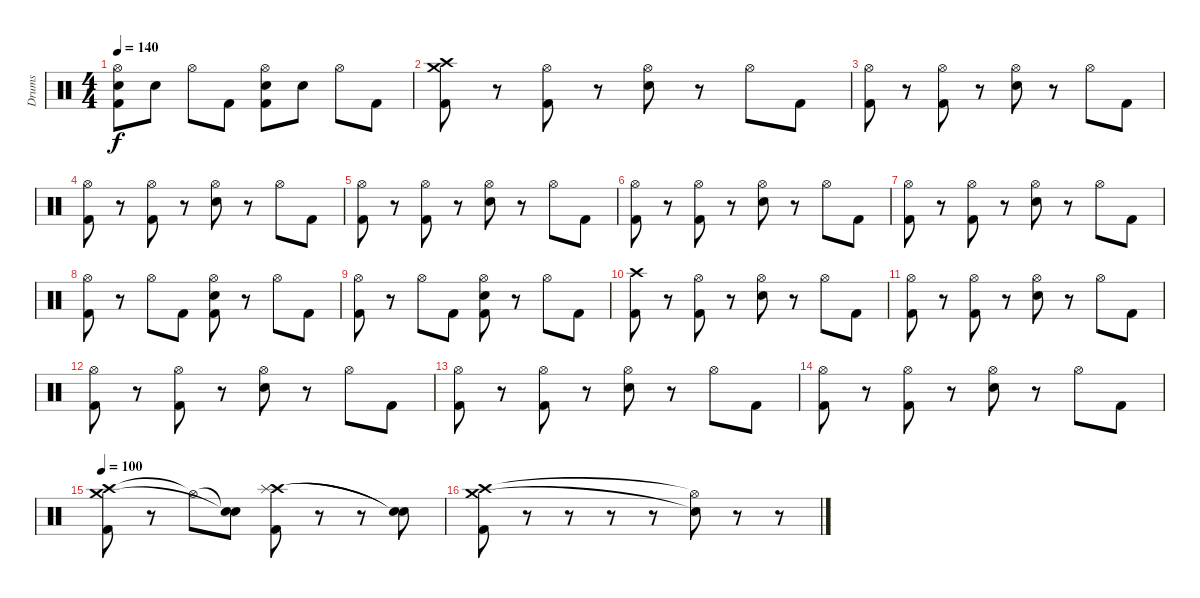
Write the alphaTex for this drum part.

\track ("Drums" "Drums") {instrument percussion}
\staff {score}
\articulation defaults
\ts (4 4)
\tempo 140
\clef neutral
\ks c
("Hi-Hat (open)" "Snare (hit) 2" "Kick (hit) 2").8{dy f} "Snare (hit) 2".8 "Hi-Hat (open)".8 "Kick (hit) 2".8 ("Hi-Hat (open)" "Snare (hit) 2" "Kick (hit) 2").8 "Snare (hit) 2".8 "Hi-Hat (open)".8 "Kick (hit) 2".8 |
("Crash high (hit)" "Crash medium (hit)" "Kick (hit) 2").8 r.8 ("Hi-Hat (open)" "Kick (hit) 2").8 r.8 ("Hi-Hat (open)" "Snare (hit) 2").8 r.8 "Hi-Hat (open)".8 "Kick (hit) 2".8 |
("Hi-Hat (open)" "Kick (hit) 2").8 r.8 ("Hi-Hat (open)" "Kick (hit) 2").8 r.8 ("Hi-Hat (open)" "Snare (hit) 2").8 r.8 "Hi-Hat (open)".8 "Kick (hit) 2".8 |
("Hi-Hat (open)" "Kick (hit) 2").8 r.8 ("Hi-Hat (open)" "Kick (hit) 2").8 r.8 ("Hi-Hat (open)" "Snare (hit) 2").8 r.8 "Hi-Hat (open)".8 "Kick (hit) 2".8 |
("Hi-Hat (open)" "Kick (hit) 2").8 r.8 ("Hi-Hat (open)" "Kick (hit) 2").8 r.8 ("Hi-Hat (open)" "Snare (hit) 2").8 r.8 "Hi-Hat (open)".8 "Kick (hit) 2".8 |
("Hi-Hat (open)" "Kick (hit) 2").8 r.8 ("Hi-Hat (open)" "Kick (hit) 2").8 r.8 ("Hi-Hat (open)" "Snare (hit) 2").8 r.8 "Hi-Hat (open)".8 "Kick (hit) 2".8 |
("Hi-Hat (open)" "Kick (hit) 2").8 r.8 ("Hi-Hat (open)" "Kick (hit) 2").8 r.8 ("Hi-Hat (open)" "Snare (hit) 2").8 r.8 "Hi-Hat (open)".8 "Kick (hit) 2".8 |
("Hi-Hat (open)" "Kick (hit) 2").8 r.8 "Hi-Hat (open)".8 "Kick (hit) 2".8 ("Hi-Hat (open)" "Snare (hit) 2" "Kick (hit) 2").8 r.8 "Hi-Hat (open)".8 "Kick (hit) 2".8 |
("Hi-Hat (open)" "Kick (hit) 2").8 r.8 "Hi-Hat (open)".8 "Kick (hit) 2".8 ("Hi-Hat (open)" "Snare (hit) 2" "Kick (hit) 2").8 r.8 "Hi-Hat (open)".8 "Kick (hit) 2".8 |
("Crash high (hit)" "Kick (hit) 2").8 r.8 ("Hi-Hat (open)" "Kick (hit) 2").8 r.8 ("Hi-Hat (open)" "Snare (hit) 2").8 r.8 "Hi-Hat (open)".8 "Kick (hit) 2".8 |
("Hi-Hat (open)" "Kick (hit) 2").8 r.8 ("Hi-Hat (open)" "Kick (hit) 2").8 r.8 ("Hi-Hat (open)" "Snare (hit) 2").8 r.8 "Hi-Hat (open)".8 "Kick (hit) 2".8 |
("Hi-Hat (open)" "Kick (hit) 2").8 r.8 ("Hi-Hat (open)" "Kick (hit) 2").8 r.8 ("Hi-Hat (open)" "Snare (hit) 2").8 r.8 "Hi-Hat (open)".8 "Kick (hit) 2".8 |
("Hi-Hat (open)" "Kick (hit) 2").8 r.8 ("Hi-Hat (open)" "Kick (hit) 2").8 r.8 ("Hi-Hat (open)" "Snare (hit) 2").8 r.8 "Hi-Hat (open)".8 "Kick (hit) 2".8 |
("Hi-Hat (open)" "Kick (hit) 2").8 r.8 ("Hi-Hat (open)" "Kick (hit) 2").8 r.8 ("Hi-Hat (open)" "Snare (hit) 2").8 r.8 "Hi-Hat (open)".8 "Kick (hit) 2".8 |
\tempo 100
("Crash high (hit)" "Crash medium (hit)" "Kick (hit) 2").8 r.8 "Hi-Hat (open)"{t}.8 ("Snare (hit)"{t} "Snare (hit)"{t}).8 ("Crash high (hit)" "Splash (hit)" "Kick (hit) 2").8 r.8 r.8 ("Snare (hit)"{t} "Snare (hit)"{t}).8 |
("Crash high (hit)" "Crash medium (hit)" "Kick (hit) 2").8 r.8 r.8 r.8 r.8 ("Hi-Hat (open)"{t} "Snare (hit)"{t}).8 r.8 r.8
